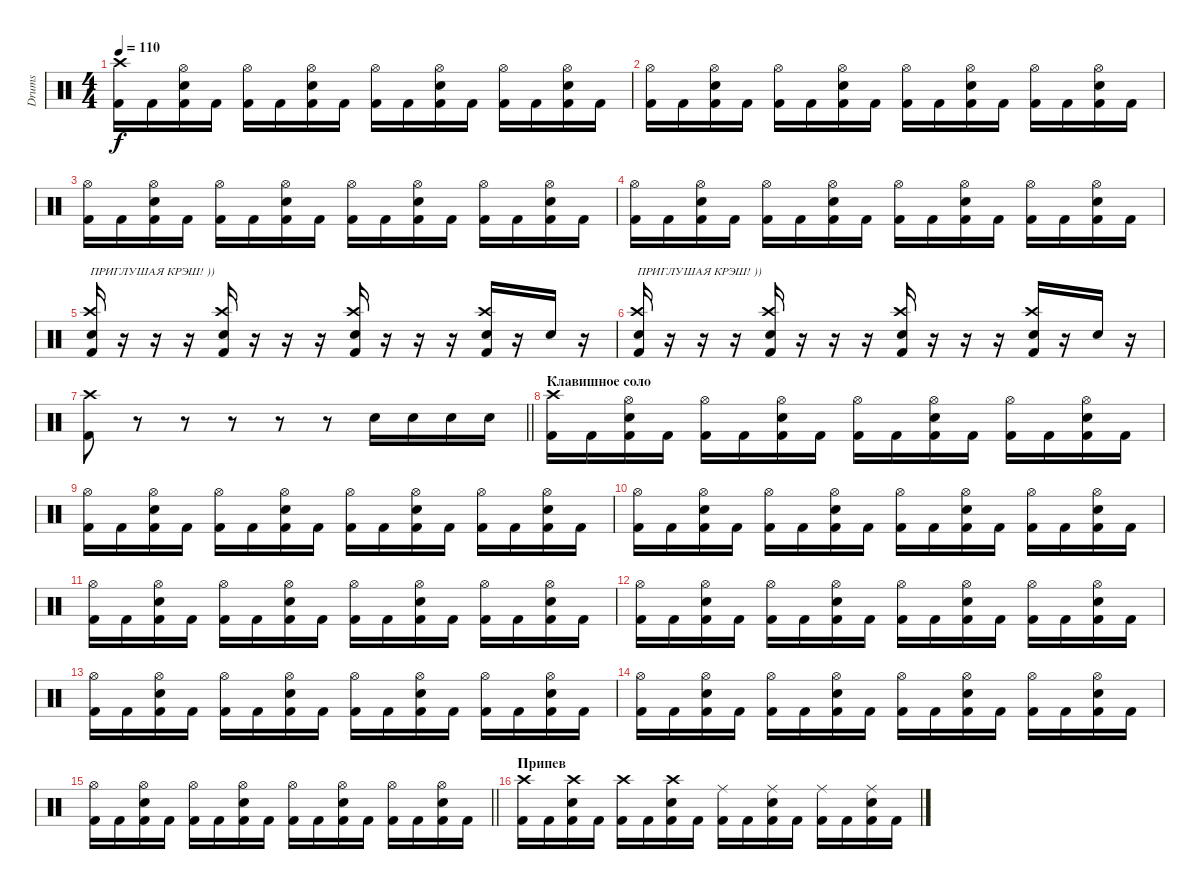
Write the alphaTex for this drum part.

\track ("Drums" "Drums") {instrument percussion}
\staff {score}
\articulation defaults
\ts (4 4)
\tempo 110
\clef neutral
\ks c
("Kick (hit) 2" "Crash high (hit)").16{dy f} "Kick (hit) 2".16 ("Kick (hit) 2" "Snare (hit) 2" "Hi-Hat (open)").16 "Kick (hit) 2".16 ("Kick (hit) 2" "Hi-Hat (open)").16 "Kick (hit) 2".16 ("Kick (hit) 2" "Snare (hit) 2" "Hi-Hat (open)").16 "Kick (hit) 2".16 ("Kick (hit) 2" "Hi-Hat (open)").16 "Kick (hit) 2".16 ("Kick (hit) 2" "Snare (hit) 2" "Hi-Hat (open)").16 "Kick (hit) 2".16 ("Kick (hit) 2" "Hi-Hat (open)").16 "Kick (hit) 2".16 ("Kick (hit) 2" "Snare (hit) 2" "Hi-Hat (open)").16 "Kick (hit) 2".16 |
("Kick (hit) 2" "Hi-Hat (open)").16 "Kick (hit) 2".16 ("Kick (hit) 2" "Snare (hit) 2" "Hi-Hat (open)").16 "Kick (hit) 2".16 ("Kick (hit) 2" "Hi-Hat (open)").16 "Kick (hit) 2".16 ("Kick (hit) 2" "Snare (hit) 2" "Hi-Hat (open)").16 "Kick (hit) 2".16 ("Kick (hit) 2" "Hi-Hat (open)").16 "Kick (hit) 2".16 ("Kick (hit) 2" "Snare (hit) 2" "Hi-Hat (open)").16 "Kick (hit) 2".16 ("Kick (hit) 2" "Hi-Hat (open)").16 "Kick (hit) 2".16 ("Kick (hit) 2" "Snare (hit) 2" "Hi-Hat (open)").16 "Kick (hit) 2".16 |
("Kick (hit) 2" "Hi-Hat (open)").16 "Kick (hit) 2".16 ("Kick (hit) 2" "Snare (hit) 2" "Hi-Hat (open)").16 "Kick (hit) 2".16 ("Kick (hit) 2" "Hi-Hat (open)").16 "Kick (hit) 2".16 ("Kick (hit) 2" "Snare (hit) 2" "Hi-Hat (open)").16 "Kick (hit) 2".16 ("Kick (hit) 2" "Hi-Hat (open)").16 "Kick (hit) 2".16 ("Kick (hit) 2" "Snare (hit) 2" "Hi-Hat (open)").16 "Kick (hit) 2".16 ("Kick (hit) 2" "Hi-Hat (open)").16 "Kick (hit) 2".16 ("Kick (hit) 2" "Snare (hit) 2" "Hi-Hat (open)").16 "Kick (hit) 2".16 |
("Kick (hit) 2" "Hi-Hat (open)").16 "Kick (hit) 2".16 ("Kick (hit) 2" "Snare (hit) 2" "Hi-Hat (open)").16 "Kick (hit) 2".16 ("Kick (hit) 2" "Hi-Hat (open)").16 "Kick (hit) 2".16 ("Kick (hit) 2" "Snare (hit) 2" "Hi-Hat (open)").16 "Kick (hit) 2".16 ("Kick (hit) 2" "Hi-Hat (open)").16 "Kick (hit) 2".16 ("Kick (hit) 2" "Snare (hit) 2" "Hi-Hat (open)").16 "Kick (hit) 2".16 ("Kick (hit) 2" "Hi-Hat (open)").16 "Kick (hit) 2".16 ("Kick (hit) 2" "Snare (hit) 2" "Hi-Hat (open)").16 "Kick (hit) 2".16 |
("Kick (hit) 2" "Snare (hit) 2" "Crash high (hit)").16{txt "ПРИГЛУШАЯ КРЭШ! ))"} r.16 r.16 r.16 ("Kick (hit) 2" "Snare (hit) 2" "Crash high (hit)").16 r.16 r.16 r.16 ("Kick (hit) 2" "Snare (hit) 2" "Crash high (hit)").16 r.16 r.16 r.16 ("Kick (hit) 2" "Snare (hit) 2" "Crash high (hit)").16 r.16 "Snare (hit) 2".16 r.16 |
("Kick (hit) 2" "Snare (hit) 2" "Crash high (hit)").16{txt "ПРИГЛУШАЯ КРЭШ! ))"} r.16 r.16 r.16 ("Kick (hit) 2" "Snare (hit) 2" "Crash high (hit)").16 r.16 r.16 r.16 ("Kick (hit) 2" "Snare (hit) 2" "Crash high (hit)").16 r.16 r.16 r.16 ("Kick (hit) 2" "Snare (hit) 2" "Crash high (hit)").16 r.16 "Snare (hit) 2".16 r.16 |
\barLineRight lightlight
("Crash high (hit)" "Kick (hit) 2").8 r.8 r.8 r.8 r.8 r.8 "Snare (hit) 2".16 "Snare (hit) 2".16 "Snare (hit) 2".16 "Snare (hit) 2".16 |
\section ("" "Клавишное соло")
("Kick (hit) 2" "Crash high (hit)").16 "Kick (hit) 2".16 ("Kick (hit) 2" "Snare (hit) 2" "Hi-Hat (open)").16 "Kick (hit) 2".16 ("Kick (hit) 2" "Hi-Hat (open)").16 "Kick (hit) 2".16 ("Kick (hit) 2" "Snare (hit) 2" "Hi-Hat (open)").16 "Kick (hit) 2".16 ("Kick (hit) 2" "Hi-Hat (open)").16 "Kick (hit) 2".16 ("Kick (hit) 2" "Snare (hit) 2" "Hi-Hat (open)").16 "Kick (hit) 2".16 ("Kick (hit) 2" "Hi-Hat (open)").16 "Kick (hit) 2".16 ("Kick (hit) 2" "Snare (hit) 2" "Hi-Hat (open)").16 "Kick (hit) 2".16 |
("Kick (hit) 2" "Hi-Hat (open)").16 "Kick (hit) 2".16 ("Kick (hit) 2" "Snare (hit) 2" "Hi-Hat (open)").16 "Kick (hit) 2".16 ("Kick (hit) 2" "Hi-Hat (open)").16 "Kick (hit) 2".16 ("Kick (hit) 2" "Snare (hit) 2" "Hi-Hat (open)").16 "Kick (hit) 2".16 ("Kick (hit) 2" "Hi-Hat (open)").16 "Kick (hit) 2".16 ("Kick (hit) 2" "Snare (hit) 2" "Hi-Hat (open)").16 "Kick (hit) 2".16 ("Kick (hit) 2" "Hi-Hat (open)").16 "Kick (hit) 2".16 ("Kick (hit) 2" "Snare (hit) 2" "Hi-Hat (open)").16 "Kick (hit) 2".16 |
("Kick (hit) 2" "Hi-Hat (open)").16 "Kick (hit) 2".16 ("Kick (hit) 2" "Snare (hit) 2" "Hi-Hat (open)").16 "Kick (hit) 2".16 ("Kick (hit) 2" "Hi-Hat (open)").16 "Kick (hit) 2".16 ("Kick (hit) 2" "Snare (hit) 2" "Hi-Hat (open)").16 "Kick (hit) 2".16 ("Kick (hit) 2" "Hi-Hat (open)").16 "Kick (hit) 2".16 ("Kick (hit) 2" "Snare (hit) 2" "Hi-Hat (open)").16 "Kick (hit) 2".16 ("Kick (hit) 2" "Hi-Hat (open)").16 "Kick (hit) 2".16 ("Kick (hit) 2" "Snare (hit) 2" "Hi-Hat (open)").16 "Kick (hit) 2".16 |
("Kick (hit) 2" "Hi-Hat (open)").16 "Kick (hit) 2".16 ("Kick (hit) 2" "Snare (hit) 2" "Hi-Hat (open)").16 "Kick (hit) 2".16 ("Kick (hit) 2" "Hi-Hat (open)").16 "Kick (hit) 2".16 ("Kick (hit) 2" "Snare (hit) 2" "Hi-Hat (open)").16 "Kick (hit) 2".16 ("Kick (hit) 2" "Hi-Hat (open)").16 "Kick (hit) 2".16 ("Kick (hit) 2" "Snare (hit) 2" "Hi-Hat (open)").16 "Kick (hit) 2".16 ("Kick (hit) 2" "Hi-Hat (open)").16 "Kick (hit) 2".16 ("Kick (hit) 2" "Snare (hit) 2" "Hi-Hat (open)").16 "Kick (hit) 2".16 |
("Kick (hit) 2" "Hi-Hat (open)").16 "Kick (hit) 2".16 ("Kick (hit) 2" "Snare (hit) 2" "Hi-Hat (open)").16 "Kick (hit) 2".16 ("Kick (hit) 2" "Hi-Hat (open)").16 "Kick (hit) 2".16 ("Kick (hit) 2" "Snare (hit) 2" "Hi-Hat (open)").16 "Kick (hit) 2".16 ("Kick (hit) 2" "Hi-Hat (open)").16 "Kick (hit) 2".16 ("Kick (hit) 2" "Snare (hit) 2" "Hi-Hat (open)").16 "Kick (hit) 2".16 ("Kick (hit) 2" "Hi-Hat (open)").16 "Kick (hit) 2".16 ("Kick (hit) 2" "Snare (hit) 2" "Hi-Hat (open)").16 "Kick (hit) 2".16 |
("Kick (hit) 2" "Hi-Hat (open)").16 "Kick (hit) 2".16 ("Kick (hit) 2" "Snare (hit) 2" "Hi-Hat (open)").16 "Kick (hit) 2".16 ("Kick (hit) 2" "Hi-Hat (open)").16 "Kick (hit) 2".16 ("Kick (hit) 2" "Snare (hit) 2" "Hi-Hat (open)").16 "Kick (hit) 2".16 ("Kick (hit) 2" "Hi-Hat (open)").16 "Kick (hit) 2".16 ("Kick (hit) 2" "Snare (hit) 2" "Hi-Hat (open)").16 "Kick (hit) 2".16 ("Kick (hit) 2" "Hi-Hat (open)").16 "Kick (hit) 2".16 ("Kick (hit) 2" "Snare (hit) 2" "Hi-Hat (open)").16 "Kick (hit) 2".16 |
("Kick (hit) 2" "Hi-Hat (open)").16 "Kick (hit) 2".16 ("Kick (hit) 2" "Snare (hit) 2" "Hi-Hat (open)").16 "Kick (hit) 2".16 ("Kick (hit) 2" "Hi-Hat (open)").16 "Kick (hit) 2".16 ("Kick (hit) 2" "Snare (hit) 2" "Hi-Hat (open)").16 "Kick (hit) 2".16 ("Kick (hit) 2" "Hi-Hat (open)").16 "Kick (hit) 2".16 ("Kick (hit) 2" "Snare (hit) 2" "Hi-Hat (open)").16 "Kick (hit) 2".16 ("Kick (hit) 2" "Hi-Hat (open)").16 "Kick (hit) 2".16 ("Kick (hit) 2" "Snare (hit) 2" "Hi-Hat (open)").16 "Kick (hit) 2".16 |
\barLineRight lightlight
("Kick (hit) 2" "Hi-Hat (open)").16 "Kick (hit) 2".16 ("Kick (hit) 2" "Snare (hit) 2" "Hi-Hat (open)").16 "Kick (hit) 2".16 ("Kick (hit) 2" "Hi-Hat (open)").16 "Kick (hit) 2".16 ("Kick (hit) 2" "Snare (hit) 2" "Hi-Hat (open)").16 "Kick (hit) 2".16 ("Kick (hit) 2" "Hi-Hat (open)").16 "Kick (hit) 2".16 ("Kick (hit) 2" "Snare (hit) 2" "Hi-Hat (open)").16 "Kick (hit) 2".16 ("Kick (hit) 2" "Hi-Hat (open)").16 "Kick (hit) 2".16 ("Kick (hit) 2" "Snare (hit) 2" "Hi-Hat (open)").16 "Kick (hit) 2".16 |
\section ("" "Припев")
("Kick (hit) 2" "Crash high (hit)").16 "Kick (hit) 2".16 ("Kick (hit) 2" "Snare (hit) 2" "Crash high (hit)").16 "Kick (hit) 2".16 ("Kick (hit) 2" "Crash high (hit)").16 "Kick (hit) 2".16 ("Kick (hit) 2" "Snare (hit) 2" "Crash high (hit)").16 "Kick (hit) 2".16 ("Kick (hit) 2" "Ride (middle)").16 "Kick (hit) 2".16 ("Kick (hit) 2" "Snare (hit) 2" "Ride (middle)").16 "Kick (hit) 2".16 ("Kick (hit) 2" "Ride (middle)").16 "Kick (hit) 2".16 ("Kick (hit) 2" "Snare (hit) 2" "Ride (middle)").16 "Kick (hit) 2".16
